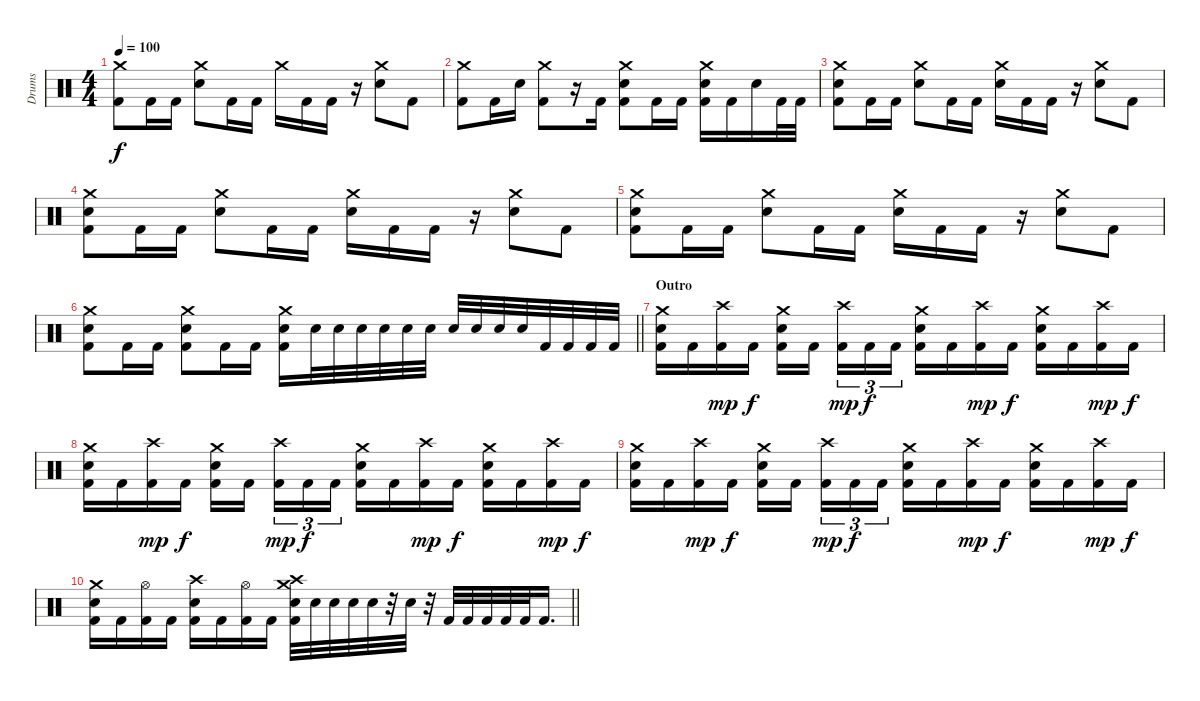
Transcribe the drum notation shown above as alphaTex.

\track ("Drums" "Drums") {instrument percussion}
\staff {score}
\articulation defaults
\ts (4 4)
\tempo 100
\clef neutral
\ks c
("Crash medium (hit)" "Kick (hit) 2").8{dy f} "Kick (hit) 2".16 "Kick (hit) 2".16 ("Crash medium (hit)" "Electric Snare (hit)").8 "Kick (hit) 2".16 "Kick (hit) 2".16 "Crash medium (hit)".16 "Kick (hit) 2".16 "Kick (hit) 2".16 r.16 ("Crash medium (hit)" "Electric Snare (hit)").8 "Kick (hit) 2".8 |
("Crash medium (hit)" "Kick (hit) 2").8 "Kick (hit) 2".16 "Electric Snare (hit)".16 ("Crash medium (hit)" "Kick (hit) 2").8 r.16 "Kick (hit) 2".16 ("Crash medium (hit)" "Electric Snare (hit)" "Kick (hit) 2").8 "Kick (hit) 2".16 "Kick (hit) 2".16 ("Crash medium (hit)" "Electric Snare (hit)" "Kick (hit) 2").16 "Kick (hit) 2".16 "Electric Snare (hit)".16 "Kick (hit) 2".32 "Kick (hit) 2".32 |
("Crash medium (hit)" "Electric Snare (hit)" "Kick (hit) 2").8 "Kick (hit) 2".16 "Kick (hit) 2".16 ("Crash medium (hit)" "Electric Snare (hit)").8 "Kick (hit) 2".16 "Kick (hit) 2".16 ("Crash medium (hit)" "Electric Snare (hit)").16 "Kick (hit) 2".16 "Kick (hit) 2".16 r.16 ("Crash medium (hit)" "Electric Snare (hit)").8 "Kick (hit) 2".8 |
("Crash medium (hit)" "Electric Snare (hit)" "Kick (hit) 2").8 "Kick (hit) 2".16 "Kick (hit) 2".16 ("Crash medium (hit)" "Electric Snare (hit)").8 "Kick (hit) 2".16 "Kick (hit) 2".16 ("Crash medium (hit)" "Electric Snare (hit)").16 "Kick (hit) 2".16 "Kick (hit) 2".16 r.16 ("Crash medium (hit)" "Electric Snare (hit)").8 "Kick (hit) 2".8 |
("Crash medium (hit)" "Electric Snare (hit)" "Kick (hit) 2").8 "Kick (hit) 2".16 "Kick (hit) 2".16 ("Crash medium (hit)" "Electric Snare (hit)").8 "Kick (hit) 2".16 "Kick (hit) 2".16 ("Crash medium (hit)" "Electric Snare (hit)").16 "Kick (hit) 2".16 "Kick (hit) 2".16 r.16 ("Crash medium (hit)" "Electric Snare (hit)").8 "Kick (hit) 2".8 |
\barLineRight lightlight
("Crash medium (hit)" "Electric Snare (hit)" "Kick (hit) 2").8 "Kick (hit) 2".16 "Kick (hit) 2".16 ("Crash medium (hit)" "Electric Snare (hit)" "Kick (hit) 2").8 "Kick (hit) 2".16 "Kick (hit) 2".16 ("Crash medium (hit)" "Electric Snare (hit)" "Kick (hit) 2").16 "Electric Snare (hit)".32 "Electric Snare (hit)".32 "Electric Snare (hit)".32 "Electric Snare (hit)".32 "Electric Snare (hit)".32 "Electric Snare (hit)".32 "Electric Snare (hit)".32 "Electric Snare (hit)".32 "Electric Snare (hit)".32 "Electric Snare (hit)".32 "Kick (hit) 2".32 "Kick (hit) 2".32 "Kick (hit) 2".32 "Kick (hit) 2".32 |
\section ("" "Outro")
("Crash medium (hit)" "Snare (hit) 2" "Kick (hit) 2").16 "Kick (hit) 2".16 ("Crash high (hit)" "Kick (hit) 2").16{dy mp} "Kick (hit) 2".16{dy f} ("Crash medium (hit)" "Snare (hit) 2" "Kick (hit) 2").16 "Kick (hit) 2".16{beam splitsecondary} ("Crash high (hit)" "Kick (hit) 2").16{tu (3 2) dy mp} "Kick (hit) 2".16{tu (3 2) dy f} "Kick (hit) 2".16{tu (3 2)} ("Crash medium (hit)" "Snare (hit) 2" "Kick (hit) 2").16 "Kick (hit) 2".16 ("Crash high (hit)" "Kick (hit) 2").16{dy mp} "Kick (hit) 2".16{dy f} ("Crash medium (hit)" "Snare (hit) 2" "Kick (hit) 2").16 "Kick (hit) 2".16 ("Crash high (hit)" "Kick (hit) 2").16{dy mp} "Kick (hit) 2".16{dy f} |
("Crash medium (hit)" "Snare (hit) 2" "Kick (hit) 2").16 "Kick (hit) 2".16 ("Crash high (hit)" "Kick (hit) 2").16{dy mp} "Kick (hit) 2".16{dy f} ("Crash medium (hit)" "Snare (hit) 2" "Kick (hit) 2").16 "Kick (hit) 2".16{beam splitsecondary} ("Crash high (hit)" "Kick (hit) 2").16{tu (3 2) dy mp} "Kick (hit) 2".16{tu (3 2) dy f} "Kick (hit) 2".16{tu (3 2)} ("Crash medium (hit)" "Snare (hit) 2" "Kick (hit) 2").16 "Kick (hit) 2".16 ("Crash high (hit)" "Kick (hit) 2").16{dy mp} "Kick (hit) 2".16{dy f} ("Crash medium (hit)" "Snare (hit) 2" "Kick (hit) 2").16 "Kick (hit) 2".16 ("Crash high (hit)" "Kick (hit) 2").16{dy mp} "Kick (hit) 2".16{dy f} |
("Crash medium (hit)" "Snare (hit) 2" "Kick (hit) 2").16 "Kick (hit) 2".16 ("Crash high (hit)" "Kick (hit) 2").16{dy mp} "Kick (hit) 2".16{dy f} ("Crash medium (hit)" "Snare (hit) 2" "Kick (hit) 2").16 "Kick (hit) 2".16{beam splitsecondary} ("Crash high (hit)" "Kick (hit) 2").16{tu (3 2) dy mp} "Kick (hit) 2".16{tu (3 2) dy f} "Kick (hit) 2".16{tu (3 2)} ("Crash medium (hit)" "Snare (hit) 2" "Kick (hit) 2").16 "Kick (hit) 2".16 ("Crash high (hit)" "Kick (hit) 2").16{dy mp} "Kick (hit) 2".16{dy f} ("Crash medium (hit)" "Snare (hit) 2" "Kick (hit) 2").16 "Kick (hit) 2".16 ("Crash high (hit)" "Kick (hit) 2").16{dy mp} "Kick (hit) 2".16{dy f} |
\barLineRight lightlight
("Crash medium (hit)" "Electric Snare (hit)" "Kick (hit) 2").16 "Kick (hit) 2".16 ("Hi-Hat (open)" "Kick (hit) 2").16 "Kick (hit) 2".16 ("Crash high (hit)" "Electric Snare (hit)" "Kick (hit) 2").16 "Kick (hit) 2".16 ("Hi-Hat (open)" "Kick (hit) 2").16 "Kick (hit) 2".16 ("Crash medium (hit)" "Crash high (hit)" "Electric Snare (hit)" "Kick (hit) 2").32 "Electric Snare (hit)".32 "Electric Snare (hit)".32 "Electric Snare (hit)".32 "Electric Snare (hit)".32 r.32 "Electric Snare (hit)".32 r.32 "Kick (hit) 2".32 "Kick (hit) 2".32 "Kick (hit) 2".32 "Kick (hit) 2".32 "Kick (hit) 2".32 "Kick (hit) 2".16{d}
